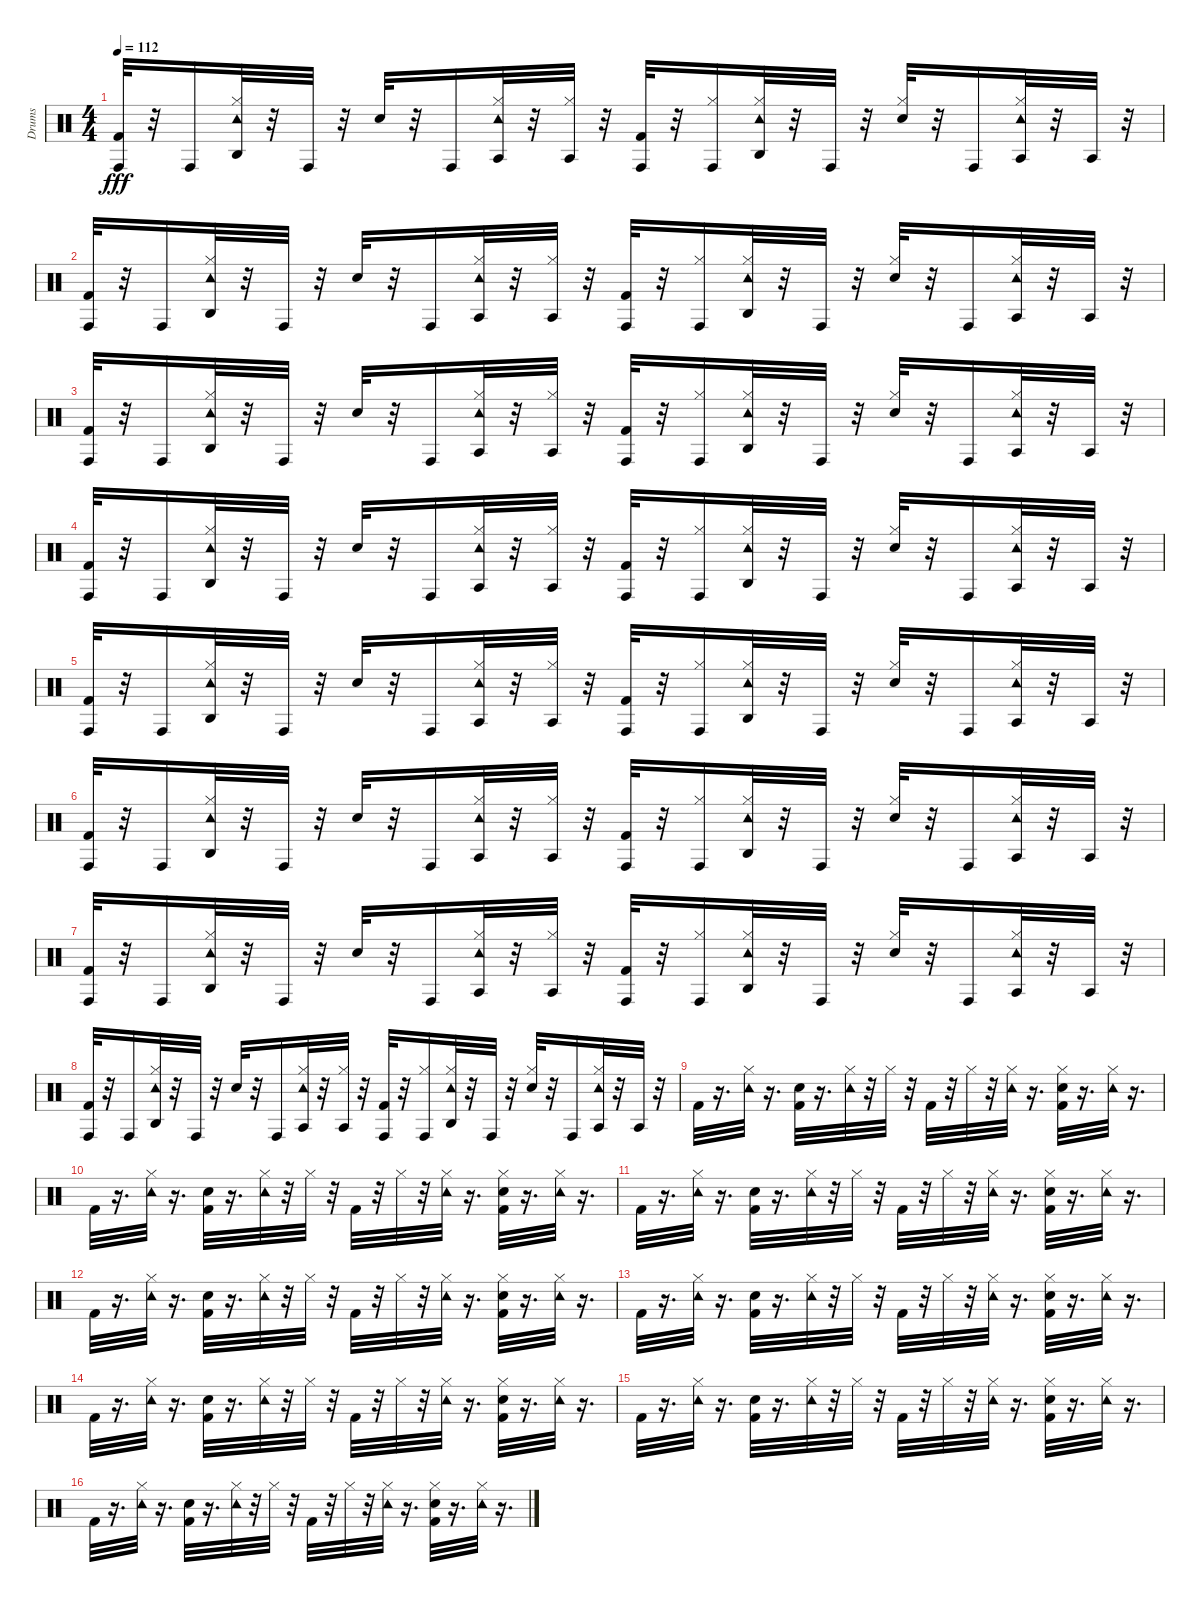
\track ("Drums" "Drums") {instrument percussion}
\staff {score}
\articulation defaults
\ts (4 4)
\tempo 112
\clef neutral
\ks c
("Kick (hit) 2" "Conga high (hit)").32{dy fff} r.32 "Conga high (hit)".16 ("Tambourine (hit)" "Hi-Hat (closed)" "Agogo high (hit)").32 r.32 "Conga high (hit)".32 r.32 "Snare (hit) 2".32 r.32 "Conga high (hit)".16 ("Tambourine (hit)" "Hi-Hat (closed)" "Agogo tow (hit)").32 r.32 ("Hi-Hat (closed)" "Agogo tow (hit)").32 r.32 ("Kick (hit) 2" "Conga high (hit)").32 r.32 ("Hi-Hat (closed)" "Conga high (hit)").16 ("Tambourine (hit)" "Hi-Hat (closed)" "Agogo high (hit)").32 r.32 "Conga high (hit)".32 r.32 ("Hi-Hat (closed)" "Snare (hit) 2").32 r.32 "Conga high (hit)".16 ("Tambourine (hit)" "Hi-Hat (closed)" "Agogo tow (hit)").32 r.32 "Agogo tow (hit)".32 r.32 |
("Kick (hit) 2" "Conga high (hit)").32 r.32 "Conga high (hit)".16 ("Tambourine (hit)" "Hi-Hat (closed)" "Agogo high (hit)").32 r.32 "Conga high (hit)".32 r.32 "Snare (hit) 2".32 r.32 "Conga high (hit)".16 ("Tambourine (hit)" "Hi-Hat (closed)" "Agogo tow (hit)").32 r.32 ("Hi-Hat (closed)" "Agogo tow (hit)").32 r.32 ("Kick (hit) 2" "Conga high (hit)").32 r.32 ("Hi-Hat (closed)" "Conga high (hit)").16 ("Tambourine (hit)" "Hi-Hat (closed)" "Agogo high (hit)").32 r.32 "Conga high (hit)".32 r.32 ("Hi-Hat (closed)" "Snare (hit) 2").32 r.32 "Conga high (hit)".16 ("Tambourine (hit)" "Hi-Hat (closed)" "Agogo tow (hit)").32 r.32 "Agogo tow (hit)".32 r.32 |
("Kick (hit) 2" "Conga high (hit)").32 r.32 "Conga high (hit)".16 ("Tambourine (hit)" "Hi-Hat (closed)" "Agogo high (hit)").32 r.32 "Conga high (hit)".32 r.32 "Snare (hit) 2".32 r.32 "Conga high (hit)".16 ("Tambourine (hit)" "Hi-Hat (closed)" "Agogo tow (hit)").32 r.32 ("Hi-Hat (closed)" "Agogo tow (hit)").32 r.32 ("Kick (hit) 2" "Conga high (hit)").32 r.32 ("Hi-Hat (closed)" "Conga high (hit)").16 ("Tambourine (hit)" "Hi-Hat (closed)" "Agogo high (hit)").32 r.32 "Conga high (hit)".32 r.32 ("Hi-Hat (closed)" "Snare (hit) 2").32 r.32 "Conga high (hit)".16 ("Tambourine (hit)" "Hi-Hat (closed)" "Agogo tow (hit)").32 r.32 "Agogo tow (hit)".32 r.32 |
("Kick (hit) 2" "Conga high (hit)").32 r.32 "Conga high (hit)".16 ("Tambourine (hit)" "Hi-Hat (closed)" "Agogo high (hit)").32 r.32 "Conga high (hit)".32 r.32 "Snare (hit) 2".32 r.32 "Conga high (hit)".16 ("Tambourine (hit)" "Hi-Hat (closed)" "Agogo tow (hit)").32 r.32 ("Hi-Hat (closed)" "Agogo tow (hit)").32 r.32 ("Kick (hit) 2" "Conga high (hit)").32 r.32 ("Hi-Hat (closed)" "Conga high (hit)").16 ("Tambourine (hit)" "Hi-Hat (closed)" "Agogo high (hit)").32 r.32 "Conga high (hit)".32 r.32 ("Hi-Hat (closed)" "Snare (hit) 2").32 r.32 "Conga high (hit)".16 ("Tambourine (hit)" "Hi-Hat (closed)" "Agogo tow (hit)").32 r.32 "Agogo tow (hit)".32 r.32 |
("Kick (hit) 2" "Conga high (hit)").32 r.32 "Conga high (hit)".16 ("Tambourine (hit)" "Hi-Hat (closed)" "Agogo high (hit)").32 r.32 "Conga high (hit)".32 r.32 "Snare (hit) 2".32 r.32 "Conga high (hit)".16 ("Tambourine (hit)" "Hi-Hat (closed)" "Agogo tow (hit)").32 r.32 ("Hi-Hat (closed)" "Agogo tow (hit)").32 r.32 ("Kick (hit) 2" "Conga high (hit)").32 r.32 ("Hi-Hat (closed)" "Conga high (hit)").16 ("Tambourine (hit)" "Hi-Hat (closed)" "Agogo high (hit)").32 r.32 "Conga high (hit)".32 r.32 ("Hi-Hat (closed)" "Snare (hit) 2").32 r.32 "Conga high (hit)".16 ("Tambourine (hit)" "Hi-Hat (closed)" "Agogo tow (hit)").32 r.32 "Agogo tow (hit)".32 r.32 |
("Kick (hit) 2" "Conga high (hit)").32 r.32 "Conga high (hit)".16 ("Tambourine (hit)" "Hi-Hat (closed)" "Agogo high (hit)").32 r.32 "Conga high (hit)".32 r.32 "Snare (hit) 2".32 r.32 "Conga high (hit)".16 ("Tambourine (hit)" "Hi-Hat (closed)" "Agogo tow (hit)").32 r.32 ("Hi-Hat (closed)" "Agogo tow (hit)").32 r.32 ("Kick (hit) 2" "Conga high (hit)").32 r.32 ("Hi-Hat (closed)" "Conga high (hit)").16 ("Tambourine (hit)" "Hi-Hat (closed)" "Agogo high (hit)").32 r.32 "Conga high (hit)".32 r.32 ("Hi-Hat (closed)" "Snare (hit) 2").32 r.32 "Conga high (hit)".16 ("Tambourine (hit)" "Hi-Hat (closed)" "Agogo tow (hit)").32 r.32 "Agogo tow (hit)".32 r.32 |
("Kick (hit) 2" "Conga high (hit)").32 r.32 "Conga high (hit)".16 ("Tambourine (hit)" "Hi-Hat (closed)" "Agogo high (hit)").32 r.32 "Conga high (hit)".32 r.32 "Snare (hit) 2".32 r.32 "Conga high (hit)".16 ("Tambourine (hit)" "Hi-Hat (closed)" "Agogo tow (hit)").32 r.32 ("Hi-Hat (closed)" "Agogo tow (hit)").32 r.32 ("Kick (hit) 2" "Conga high (hit)").32 r.32 ("Hi-Hat (closed)" "Conga high (hit)").16 ("Tambourine (hit)" "Hi-Hat (closed)" "Agogo high (hit)").32 r.32 "Conga high (hit)".32 r.32 ("Hi-Hat (closed)" "Snare (hit) 2").32 r.32 "Conga high (hit)".16 ("Tambourine (hit)" "Hi-Hat (closed)" "Agogo tow (hit)").32 r.32 "Agogo tow (hit)".32 r.32 |
("Kick (hit) 2" "Conga high (hit)").32 r.32 "Conga high (hit)".16 ("Tambourine (hit)" "Hi-Hat (closed)" "Agogo high (hit)").32 r.32 "Conga high (hit)".32 r.32 "Snare (hit) 2".32 r.32 "Conga high (hit)".16 ("Tambourine (hit)" "Hi-Hat (closed)" "Agogo tow (hit)").32 r.32 ("Hi-Hat (closed)" "Agogo tow (hit)").32 r.32 ("Kick (hit) 2" "Conga high (hit)").32 r.32 ("Hi-Hat (closed)" "Conga high (hit)").16 ("Tambourine (hit)" "Hi-Hat (closed)" "Agogo high (hit)").32 r.32 "Conga high (hit)".32 r.32 ("Hi-Hat (closed)" "Snare (hit) 2").32 r.32 "Conga high (hit)".16 ("Tambourine (hit)" "Hi-Hat (closed)" "Agogo tow (hit)").32 r.32 "Agogo tow (hit)".32 r.32 |
"Kick (hit) 2".32 r.16{d} ("Tambourine (hit)" "Hi-Hat (closed)").32 r.16{d} ("Snare (hit) 2" "Kick (hit) 2").32 r.16{d} ("Tambourine (hit)" "Hi-Hat (closed)").32 r.32 "Hi-Hat (closed)".32 r.32 "Kick (hit) 2".32 r.32 "Hi-Hat (closed)".32 r.32 ("Tambourine (hit)" "Hi-Hat (closed)").32 r.16{d} ("Snare (hit) 2" "Hi-Hat (closed)" "Kick (hit) 2").32 r.16{d} ("Tambourine (hit)" "Hi-Hat (closed)").32 r.16{d} |
"Kick (hit) 2".32 r.16{d} ("Tambourine (hit)" "Hi-Hat (closed)").32 r.16{d} ("Snare (hit) 2" "Kick (hit) 2").32 r.16{d} ("Tambourine (hit)" "Hi-Hat (closed)").32 r.32 "Hi-Hat (closed)".32 r.32 "Kick (hit) 2".32 r.32 "Hi-Hat (closed)".32 r.32 ("Tambourine (hit)" "Hi-Hat (closed)").32 r.16{d} ("Snare (hit) 2" "Hi-Hat (closed)" "Kick (hit) 2").32 r.16{d} ("Tambourine (hit)" "Hi-Hat (closed)").32 r.16{d} |
"Kick (hit) 2".32 r.16{d} ("Tambourine (hit)" "Hi-Hat (closed)").32 r.16{d} ("Snare (hit) 2" "Kick (hit) 2").32 r.16{d} ("Tambourine (hit)" "Hi-Hat (closed)").32 r.32 "Hi-Hat (closed)".32 r.32 "Kick (hit) 2".32 r.32 "Hi-Hat (closed)".32 r.32 ("Tambourine (hit)" "Hi-Hat (closed)").32 r.16{d} ("Snare (hit) 2" "Hi-Hat (closed)" "Kick (hit) 2").32 r.16{d} ("Tambourine (hit)" "Hi-Hat (closed)").32 r.16{d} |
"Kick (hit) 2".32 r.16{d} ("Tambourine (hit)" "Hi-Hat (closed)").32 r.16{d} ("Snare (hit) 2" "Kick (hit) 2").32 r.16{d} ("Tambourine (hit)" "Hi-Hat (closed)").32 r.32 "Hi-Hat (closed)".32 r.32 "Kick (hit) 2".32 r.32 "Hi-Hat (closed)".32 r.32 ("Tambourine (hit)" "Hi-Hat (closed)").32 r.16{d} ("Snare (hit) 2" "Hi-Hat (closed)" "Kick (hit) 2").32 r.16{d} ("Tambourine (hit)" "Hi-Hat (closed)").32 r.16{d} |
"Kick (hit) 2".32 r.16{d} ("Tambourine (hit)" "Hi-Hat (closed)").32 r.16{d} ("Snare (hit) 2" "Kick (hit) 2").32 r.16{d} ("Tambourine (hit)" "Hi-Hat (closed)").32 r.32 "Hi-Hat (closed)".32 r.32 "Kick (hit) 2".32 r.32 "Hi-Hat (closed)".32 r.32 ("Tambourine (hit)" "Hi-Hat (closed)").32 r.16{d} ("Snare (hit) 2" "Hi-Hat (closed)" "Kick (hit) 2").32 r.16{d} ("Tambourine (hit)" "Hi-Hat (closed)").32 r.16{d} |
"Kick (hit) 2".32 r.16{d} ("Tambourine (hit)" "Hi-Hat (closed)").32 r.16{d} ("Snare (hit) 2" "Kick (hit) 2").32 r.16{d} ("Tambourine (hit)" "Hi-Hat (closed)").32 r.32 "Hi-Hat (closed)".32 r.32 "Kick (hit) 2".32 r.32 "Hi-Hat (closed)".32 r.32 ("Tambourine (hit)" "Hi-Hat (closed)").32 r.16{d} ("Snare (hit) 2" "Hi-Hat (closed)" "Kick (hit) 2").32 r.16{d} ("Tambourine (hit)" "Hi-Hat (closed)").32 r.16{d} |
"Kick (hit) 2".32 r.16{d} ("Tambourine (hit)" "Hi-Hat (closed)").32 r.16{d} ("Snare (hit) 2" "Kick (hit) 2").32 r.16{d} ("Tambourine (hit)" "Hi-Hat (closed)").32 r.32 "Hi-Hat (closed)".32 r.32 "Kick (hit) 2".32 r.32 "Hi-Hat (closed)".32 r.32 ("Tambourine (hit)" "Hi-Hat (closed)").32 r.16{d} ("Snare (hit) 2" "Hi-Hat (closed)" "Kick (hit) 2").32 r.16{d} ("Tambourine (hit)" "Hi-Hat (closed)").32 r.16{d} |
"Kick (hit) 2".32 r.16{d} ("Tambourine (hit)" "Hi-Hat (closed)").32 r.16{d} ("Snare (hit) 2" "Kick (hit) 2").32 r.16{d} ("Tambourine (hit)" "Hi-Hat (closed)").32 r.32 "Hi-Hat (closed)".32 r.32 "Kick (hit) 2".32 r.32 "Hi-Hat (closed)".32 r.32 ("Tambourine (hit)" "Hi-Hat (closed)").32 r.16{d} ("Snare (hit) 2" "Hi-Hat (closed)" "Kick (hit) 2").32 r.16{d} ("Tambourine (hit)" "Hi-Hat (closed)").32 r.16{d}
